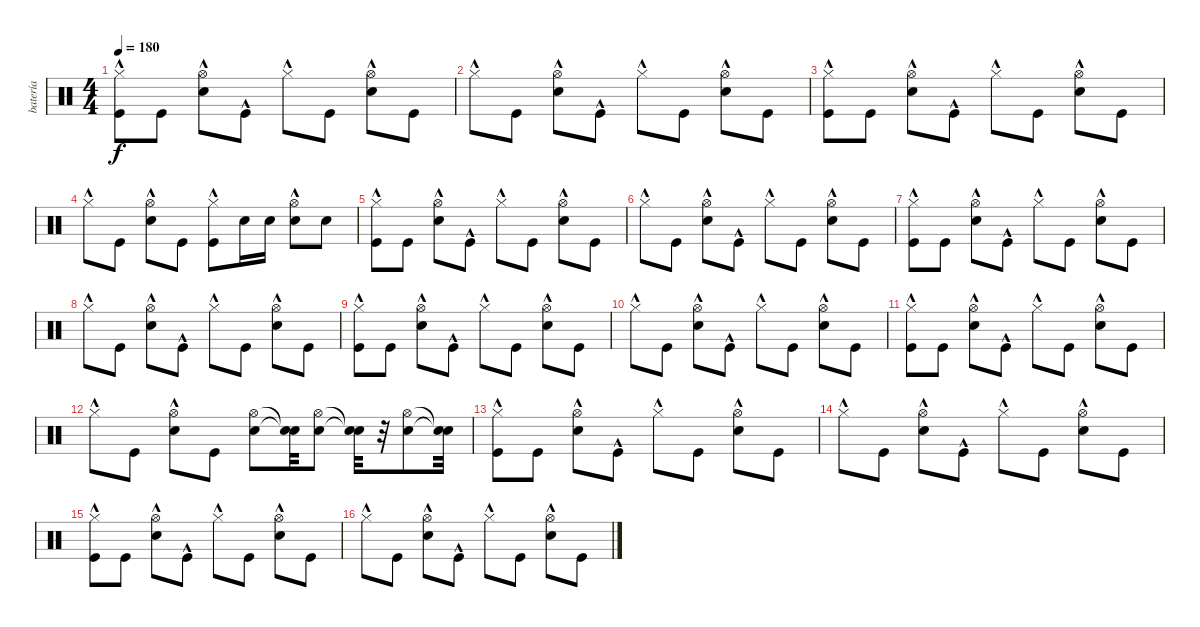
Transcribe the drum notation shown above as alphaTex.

\track ("batería" "batería") {instrument percussion}
\staff {score}
\articulation defaults
\ts (4 4)
\tempo 180
\clef neutral
\ks c
("Kick (hit)" "Hi-Hat (closed)"{hac}).8{dy f} "Kick (hit)".8 ("Electric Snare (hit)" "Hi-Hat (open)"{hac}).8 "Kick (hit)"{hac}.8 "Hi-Hat (closed)"{hac}.8 "Kick (hit)".8 ("Electric Snare (hit)" "Hi-Hat (open)"{hac}).8 "Kick (hit)".8 |
"Hi-Hat (closed)"{hac}.8 "Kick (hit)".8 ("Electric Snare (hit)" "Hi-Hat (open)"{hac}).8 "Kick (hit)"{hac}.8 "Hi-Hat (closed)"{hac}.8 "Kick (hit)".8 ("Electric Snare (hit)" "Hi-Hat (open)"{hac}).8 "Kick (hit)".8 |
("Kick (hit)" "Hi-Hat (closed)"{hac}).8 "Kick (hit)".8 ("Electric Snare (hit)" "Hi-Hat (open)"{hac}).8 "Kick (hit)"{hac}.8 "Hi-Hat (closed)"{hac}.8 "Kick (hit)".8 ("Electric Snare (hit)" "Hi-Hat (open)"{hac}).8 "Kick (hit)".8 |
"Hi-Hat (closed)"{hac}.8 "Kick (hit)".8 ("Electric Snare (hit)" "Hi-Hat (open)"{hac}).8 "Kick (hit)".8 ("Kick (hit)" "Hi-Hat (closed)"{hac}).8 "Electric Snare (hit)".16 "Electric Snare (hit)".16 ("Electric Snare (hit)" "Hi-Hat (open)"{hac}).8 "Electric Snare (hit)".8 |
("Kick (hit)" "Hi-Hat (closed)"{hac}).8 "Kick (hit)".8 ("Electric Snare (hit)" "Hi-Hat (open)"{hac}).8 "Kick (hit)"{hac}.8 "Hi-Hat (closed)"{hac}.8 "Kick (hit)".8 ("Electric Snare (hit)" "Hi-Hat (open)"{hac}).8 "Kick (hit)".8 |
"Hi-Hat (closed)"{hac}.8 "Kick (hit)".8 ("Electric Snare (hit)" "Hi-Hat (open)"{hac}).8 "Kick (hit)"{hac}.8 "Hi-Hat (closed)"{hac}.8 "Kick (hit)".8 ("Electric Snare (hit)" "Hi-Hat (open)"{hac}).8 "Kick (hit)".8 |
("Kick (hit)" "Hi-Hat (closed)"{hac}).8 "Kick (hit)".8 ("Electric Snare (hit)" "Hi-Hat (open)"{hac}).8 "Kick (hit)"{hac}.8 "Hi-Hat (closed)"{hac}.8 "Kick (hit)".8 ("Electric Snare (hit)" "Hi-Hat (open)"{hac}).8 "Kick (hit)".8 |
"Hi-Hat (closed)"{hac}.8 "Kick (hit)".8 ("Electric Snare (hit)" "Hi-Hat (open)"{hac}).8 "Kick (hit)"{hac}.8 "Hi-Hat (closed)"{hac}.8 "Kick (hit)".8 ("Electric Snare (hit)" "Hi-Hat (open)"{hac}).8 "Kick (hit)".8 |
("Kick (hit)" "Hi-Hat (closed)"{hac}).8 "Kick (hit)".8 ("Electric Snare (hit)" "Hi-Hat (open)"{hac}).8 "Kick (hit)"{hac}.8 "Hi-Hat (closed)"{hac}.8 "Kick (hit)".8 ("Electric Snare (hit)" "Hi-Hat (open)"{hac}).8 "Kick (hit)".8 |
"Hi-Hat (closed)"{hac}.8 "Kick (hit)".8 ("Electric Snare (hit)" "Hi-Hat (open)"{hac}).8 "Kick (hit)"{hac}.8 "Hi-Hat (closed)"{hac}.8 "Kick (hit)".8 ("Electric Snare (hit)" "Hi-Hat (open)"{hac}).8 "Kick (hit)".8 |
("Kick (hit)" "Hi-Hat (closed)"{hac}).8 "Kick (hit)".8 ("Electric Snare (hit)" "Hi-Hat (open)"{hac}).8 "Kick (hit)"{hac}.8 "Hi-Hat (closed)"{hac}.8 "Kick (hit)".8 ("Electric Snare (hit)" "Hi-Hat (open)"{hac}).8 "Kick (hit)".8 |
"Hi-Hat (closed)"{hac}.8 "Kick (hit)".8 ("Electric Snare (hit)" "Hi-Hat (open)"{hac}).8 "Kick (hit)".8 ("Electric Snare (hit)" "Hi-Hat (open)").8 ("Snare (hit)"{t} "Snare (hit)"{t}).32 ("Electric Snare (hit)" "Hi-Hat (open)").8 ("Snare (hit)"{t} "Snare (hit)"{t}).32 r.32 ("Electric Snare (hit)" "Hi-Hat (open)").8 ("Snare (hit)"{t} "Snare (hit)"{t}).32 |
("Kick (hit)" "Hi-Hat (closed)"{hac}).8 "Kick (hit)".8 ("Electric Snare (hit)" "Hi-Hat (open)"{hac}).8 "Kick (hit)"{hac}.8 "Hi-Hat (closed)"{hac}.8 "Kick (hit)".8 ("Electric Snare (hit)" "Hi-Hat (open)"{hac}).8 "Kick (hit)".8 |
"Hi-Hat (closed)"{hac}.8 "Kick (hit)".8 ("Electric Snare (hit)" "Hi-Hat (open)"{hac}).8 "Kick (hit)"{hac}.8 "Hi-Hat (closed)"{hac}.8 "Kick (hit)".8 ("Electric Snare (hit)" "Hi-Hat (open)"{hac}).8 "Kick (hit)".8 |
("Kick (hit)" "Hi-Hat (closed)"{hac}).8 "Kick (hit)".8 ("Electric Snare (hit)" "Hi-Hat (open)"{hac}).8 "Kick (hit)"{hac}.8 "Hi-Hat (closed)"{hac}.8 "Kick (hit)".8 ("Electric Snare (hit)" "Hi-Hat (open)"{hac}).8 "Kick (hit)".8 |
"Hi-Hat (closed)"{hac}.8 "Kick (hit)".8 ("Electric Snare (hit)" "Hi-Hat (open)"{hac}).8 "Kick (hit)"{hac}.8 "Hi-Hat (closed)"{hac}.8 "Kick (hit)".8 ("Electric Snare (hit)" "Hi-Hat (open)"{hac}).8 "Kick (hit)".8
